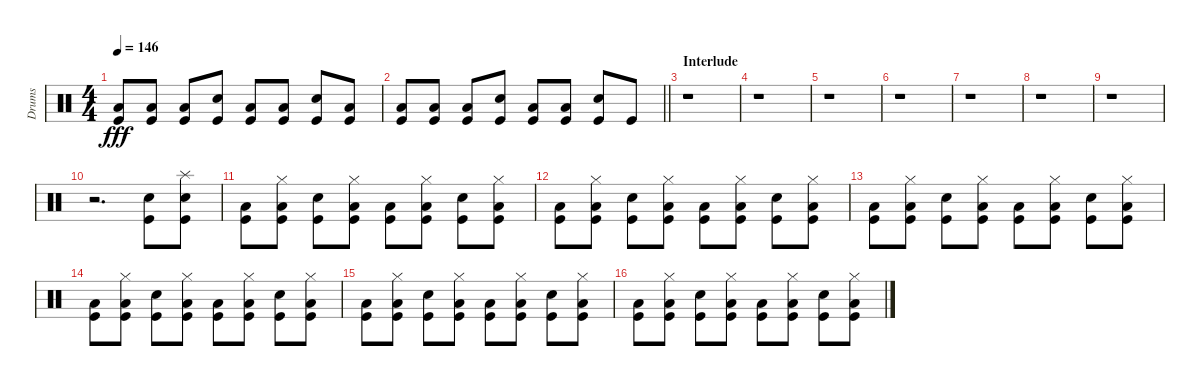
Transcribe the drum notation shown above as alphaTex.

\track ("Drums" "Drums") {instrument percussion}
\staff {score}
\articulation defaults
\ts (4 4)
\tempo 146
\clef neutral
\ks c
("Low Floor Tom (hit)" "Kick (hit)").8{dy fff} ("Low Floor Tom (hit)" "Kick (hit)").8 ("Low Floor Tom (hit)" "Kick (hit)").8 ("Electric Snare (hit)" "Kick (hit)").8 ("Low Floor Tom (hit)" "Kick (hit)").8 ("Low Floor Tom (hit)" "Kick (hit)").8 ("Electric Snare (hit)" "Kick (hit)").8 ("Low Floor Tom (hit)" "Kick (hit)").8 |
\barLineRight lightlight
("Low Floor Tom (hit)" "Kick (hit)").8 ("Low Floor Tom (hit)" "Kick (hit)").8 ("Low Floor Tom (hit)" "Kick (hit)").8 ("Electric Snare (hit)" "Kick (hit)").8 ("Low Floor Tom (hit)" "Kick (hit)").8 ("Low Floor Tom (hit)" "Kick (hit)").8 ("Electric Snare (hit)" "Kick (hit)").8 "Kick (hit)".8 |
\section ("" "Interlude")
r.1 |
r.1 |
r.1 |
r.1 |
r.1 |
r.1 |
r.1 |
r.2{d} ("Electric Snare (hit)" "Kick (hit)").8 ("Splash (hit)" "Electric Snare (hit)" "Kick (hit)").8 |
("Low Floor Tom (hit)" "Kick (hit)").8 ("Hi-Hat (closed)" "Low Floor Tom (hit)" "Kick (hit)").8 ("Electric Snare (hit)" "Kick (hit)").8 ("Hi-Hat (closed)" "Low Floor Tom (hit)" "Kick (hit)").8 ("Low Floor Tom (hit)" "Kick (hit)").8 ("Hi-Hat (closed)" "Low Floor Tom (hit)" "Kick (hit)").8 ("Electric Snare (hit)" "Kick (hit)").8 ("Hi-Hat (closed)" "Low Floor Tom (hit)" "Kick (hit)").8 |
("Low Floor Tom (hit)" "Kick (hit)").8 ("Hi-Hat (closed)" "Low Floor Tom (hit)" "Kick (hit)").8 ("Electric Snare (hit)" "Kick (hit)").8 ("Hi-Hat (closed)" "Low Floor Tom (hit)" "Kick (hit)").8 ("Low Floor Tom (hit)" "Kick (hit)").8 ("Hi-Hat (closed)" "Low Floor Tom (hit)" "Kick (hit)").8 ("Electric Snare (hit)" "Kick (hit)").8 ("Hi-Hat (closed)" "Low Floor Tom (hit)" "Kick (hit)").8 |
("Low Floor Tom (hit)" "Kick (hit)").8 ("Hi-Hat (closed)" "Low Floor Tom (hit)" "Kick (hit)").8 ("Electric Snare (hit)" "Kick (hit)").8 ("Hi-Hat (closed)" "Low Floor Tom (hit)" "Kick (hit)").8 ("Low Floor Tom (hit)" "Kick (hit)").8 ("Hi-Hat (closed)" "Low Floor Tom (hit)" "Kick (hit)").8 ("Electric Snare (hit)" "Kick (hit)").8 ("Hi-Hat (closed)" "Low Floor Tom (hit)" "Kick (hit)").8 |
("Low Floor Tom (hit)" "Kick (hit)").8 ("Hi-Hat (closed)" "Low Floor Tom (hit)" "Kick (hit)").8 ("Electric Snare (hit)" "Kick (hit)").8 ("Hi-Hat (closed)" "Low Floor Tom (hit)" "Kick (hit)").8 ("Low Floor Tom (hit)" "Kick (hit)").8 ("Hi-Hat (closed)" "Low Floor Tom (hit)" "Kick (hit)").8 ("Electric Snare (hit)" "Kick (hit)").8 ("Hi-Hat (closed)" "Low Floor Tom (hit)" "Kick (hit)").8 |
("Low Floor Tom (hit)" "Kick (hit)").8 ("Hi-Hat (closed)" "Low Floor Tom (hit)" "Kick (hit)").8 ("Electric Snare (hit)" "Kick (hit)").8 ("Hi-Hat (closed)" "Low Floor Tom (hit)" "Kick (hit)").8 ("Low Floor Tom (hit)" "Kick (hit)").8 ("Hi-Hat (closed)" "Low Floor Tom (hit)" "Kick (hit)").8 ("Electric Snare (hit)" "Kick (hit)").8 ("Hi-Hat (closed)" "Low Floor Tom (hit)" "Kick (hit)").8 |
("Low Floor Tom (hit)" "Kick (hit)").8 ("Hi-Hat (closed)" "Low Floor Tom (hit)" "Kick (hit)").8 ("Electric Snare (hit)" "Kick (hit)").8 ("Hi-Hat (closed)" "Low Floor Tom (hit)" "Kick (hit)").8 ("Low Floor Tom (hit)" "Kick (hit)").8 ("Hi-Hat (closed)" "Low Floor Tom (hit)" "Kick (hit)").8 ("Electric Snare (hit)" "Kick (hit)").8 ("Hi-Hat (closed)" "Low Floor Tom (hit)" "Kick (hit)").8
